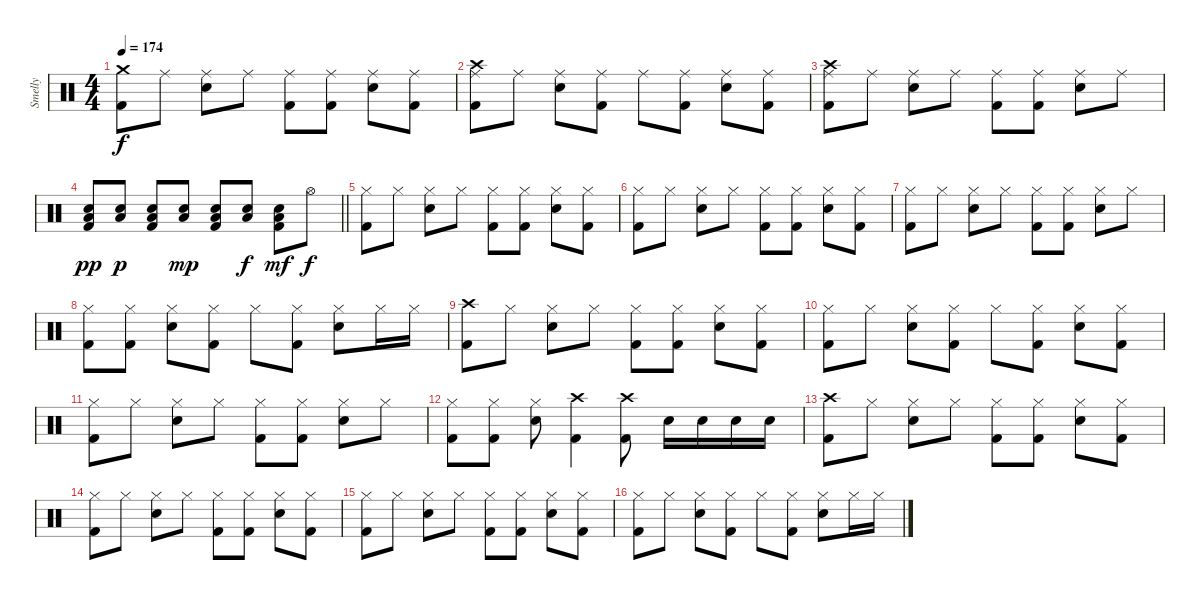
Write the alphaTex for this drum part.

\track ("Smelly" "Smelly") {instrument percussion}
\staff {score}
\articulation defaults
\ts (4 4)
\section ("" "")
\tempo 174
\clef neutral
\ks c
("Crash medium (hit)" "Kick (hit) 2").8{dy f} "Ride (middle)".8 ("Ride (middle)" "Electric Snare (hit)").8 "Ride (middle)".8 ("Ride (middle)" "Kick (hit) 2").8 ("Ride (middle)" "Kick (hit) 2").8 ("Ride (middle)" "Electric Snare (hit)").8 ("Ride (middle)" "Kick (hit) 2").8 |
("Ride (middle)" "Crash high (hit)" "Kick (hit) 2").8 "Ride (middle)".8 ("Ride (middle)" "Electric Snare (hit)").8 ("Ride (middle)" "Kick (hit) 2").8 "Ride (middle)".8 ("Ride (middle)" "Kick (hit) 2").8 ("Ride (middle)" "Electric Snare (hit)").8 ("Ride (middle)" "Kick (hit) 2").8 |
("Ride (middle)" "Crash high (hit)" "Kick (hit) 2").8 "Ride (middle)".8 ("Ride (middle)" "Electric Snare (hit)").8 "Ride (middle)".8 ("Ride (middle)" "Kick (hit) 2").8 ("Ride (middle)" "Kick (hit) 2").8 ("Ride (middle)" "Electric Snare (hit)").8 "Ride (middle)".8 |
\barLineRight lightlight
("Electric Snare (hit)" "Low Floor Tom (hit)" "Kick (hit) 2").8{dy pp} ("Electric Snare (hit)" "Low Floor Tom (hit)").8{dy p} ("Electric Snare (hit)" "Low Floor Tom (hit)" "Kick (hit) 2").8 ("Electric Snare (hit)" "Low Floor Tom (hit)").8{dy mp} ("Electric Snare (hit)" "Low Floor Tom (hit)" "Kick (hit) 2").8 ("Electric Snare (hit)" "Low Floor Tom (hit)").8{dy f} ("Electric Snare (hit)" "Low Floor Tom (hit)" "Kick (hit) 2").8{dy mf} "Hi-Hat (open)".8{dy f} |
\section ("" "")
("Hi-Hat (closed)" "Kick (hit) 2").8 "Hi-Hat (closed)".8 ("Hi-Hat (closed)" "Electric Snare (hit)").8 "Hi-Hat (closed)".8 ("Hi-Hat (closed)" "Kick (hit) 2").8 ("Hi-Hat (closed)" "Kick (hit) 2").8 ("Hi-Hat (closed)" "Electric Snare (hit)").8 ("Hi-Hat (closed)" "Kick (hit) 2").8 |
("Hi-Hat (closed)" "Kick (hit) 2").8 "Hi-Hat (closed)".8 ("Hi-Hat (closed)" "Electric Snare (hit)").8 "Hi-Hat (closed)".8 ("Hi-Hat (closed)" "Kick (hit) 2").8 ("Hi-Hat (closed)" "Kick (hit) 2").8 ("Hi-Hat (closed)" "Electric Snare (hit)").8 ("Hi-Hat (closed)" "Kick (hit) 2").8 |
("Hi-Hat (closed)" "Kick (hit) 2").8 "Hi-Hat (closed)".8 ("Hi-Hat (closed)" "Electric Snare (hit)").8 "Hi-Hat (closed)".8 ("Hi-Hat (closed)" "Kick (hit) 2").8 ("Hi-Hat (closed)" "Kick (hit) 2").8 ("Hi-Hat (closed)" "Electric Snare (hit)").8 "Hi-Hat (closed)".8 |
("Hi-Hat (closed)" "Kick (hit) 2").8 ("Hi-Hat (closed)" "Kick (hit) 2").8 ("Hi-Hat (closed)" "Electric Snare (hit)").8 ("Hi-Hat (closed)" "Kick (hit) 2").8 "Hi-Hat (closed)".8 ("Hi-Hat (closed)" "Kick (hit) 2").8 ("Hi-Hat (closed)" "Electric Snare (hit)").8 "Hi-Hat (closed)".16 "Hi-Hat (closed)".16 |
("Crash high (hit)" "Kick (hit) 2").8 "Hi-Hat (closed)".8 ("Hi-Hat (closed)" "Electric Snare (hit)").8 "Hi-Hat (closed)".8 ("Hi-Hat (closed)" "Kick (hit) 2").8 ("Hi-Hat (closed)" "Kick (hit) 2").8 ("Hi-Hat (closed)" "Electric Snare (hit)").8 ("Hi-Hat (closed)" "Kick (hit) 2").8 |
("Hi-Hat (closed)" "Kick (hit) 2").8 "Hi-Hat (closed)".8 ("Hi-Hat (closed)" "Electric Snare (hit)").8 ("Hi-Hat (closed)" "Kick (hit) 2").8 "Hi-Hat (closed)".8 ("Hi-Hat (closed)" "Kick (hit) 2").8 ("Hi-Hat (closed)" "Electric Snare (hit)").8 ("Hi-Hat (closed)" "Kick (hit) 2").8 |
("Hi-Hat (closed)" "Kick (hit) 2").8 "Hi-Hat (closed)".8 ("Hi-Hat (closed)" "Electric Snare (hit)").8 "Hi-Hat (closed)".8 ("Hi-Hat (closed)" "Kick (hit) 2").8 ("Hi-Hat (closed)" "Kick (hit) 2").8 ("Hi-Hat (closed)" "Electric Snare (hit)").8 "Hi-Hat (closed)".8 |
("Hi-Hat (closed)" "Kick (hit) 2").8 ("Hi-Hat (closed)" "Kick (hit) 2").8 ("Hi-Hat (closed)" "Electric Snare (hit)").8 ("Crash high (hit)" "Kick (hit) 2").4 ("Crash high (hit)" "Kick (hit) 2").8 "Electric Snare (hit)".16 "Electric Snare (hit)".16 "Electric Snare (hit)".16 "Electric Snare (hit)".16 |
("Crash high (hit)" "Kick (hit) 2").8 "Hi-Hat (closed)".8 ("Hi-Hat (closed)" "Electric Snare (hit)").8 "Hi-Hat (closed)".8 ("Hi-Hat (closed)" "Kick (hit) 2").8 ("Hi-Hat (closed)" "Kick (hit) 2").8 ("Hi-Hat (closed)" "Electric Snare (hit)").8 ("Hi-Hat (closed)" "Kick (hit) 2").8 |
("Hi-Hat (closed)" "Kick (hit) 2").8 "Hi-Hat (closed)".8 ("Hi-Hat (closed)" "Electric Snare (hit)").8 "Hi-Hat (closed)".8 ("Hi-Hat (closed)" "Kick (hit) 2").8 ("Hi-Hat (closed)" "Kick (hit) 2").8 ("Hi-Hat (closed)" "Electric Snare (hit)").8 ("Hi-Hat (closed)" "Kick (hit) 2").8 |
("Hi-Hat (closed)" "Kick (hit) 2").8 "Hi-Hat (closed)".8 ("Hi-Hat (closed)" "Electric Snare (hit)").8 "Hi-Hat (closed)".8 ("Hi-Hat (closed)" "Kick (hit) 2").8 ("Hi-Hat (closed)" "Kick (hit) 2").8 ("Hi-Hat (closed)" "Electric Snare (hit)").8 ("Hi-Hat (closed)" "Kick (hit) 2").8 |
("Hi-Hat (closed)" "Kick (hit) 2").8 "Hi-Hat (closed)".8 ("Hi-Hat (closed)" "Electric Snare (hit)").8 ("Hi-Hat (closed)" "Kick (hit) 2").8 "Hi-Hat (closed)".8 ("Hi-Hat (closed)" "Kick (hit) 2").8 ("Hi-Hat (closed)" "Electric Snare (hit)").8 "Hi-Hat (closed)".16 "Hi-Hat (closed)".16
